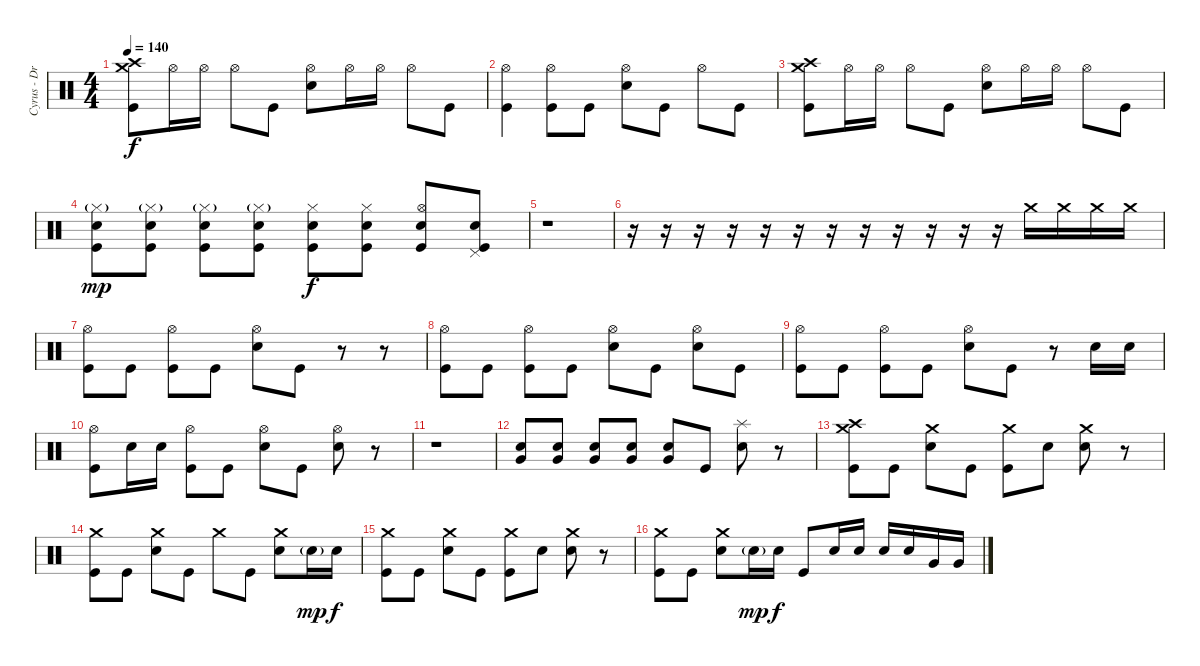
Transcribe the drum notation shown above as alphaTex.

\track ("Cyrus - Drums" "Cyrus - Dr") {instrument percussion}
\staff {score}
\articulation defaults
\ts (4 4)
\tempo 140
\clef neutral
\ks c
("Crash high (hit)" "Crash medium (hit)" "Kick (hit)").8{dy f} "Hi-Hat (open)".16 "Hi-Hat (open)".16 "Hi-Hat (open)".8 "Kick (hit)".8 ("Hi-Hat (open)" "Electric Snare (hit)").8 "Hi-Hat (open)".16 "Hi-Hat (open)".16 "Hi-Hat (open)".8 "Kick (hit)".8 |
("Hi-Hat (open)" "Kick (hit)").4 ("Hi-Hat (open)" "Kick (hit)").8 "Kick (hit)".8 ("Hi-Hat (open)" "Electric Snare (hit)").8 "Kick (hit)".8 "Hi-Hat (open)".8 "Kick (hit)".8 |
("Crash medium (hit)" "Crash high (hit)" "Kick (hit)").8 "Hi-Hat (open)".16 "Hi-Hat (open)".16 "Hi-Hat (open)".8 "Kick (hit)".8 ("Hi-Hat (open)" "Electric Snare (hit)").8 "Hi-Hat (open)".16 "Hi-Hat (open)".16 "Hi-Hat (open)".8 "Kick (hit)".8 |
("Hi-Hat (closed)"{g} "Electric Snare (hit)" "Kick (hit)").8{dy mp} ("Hi-Hat (closed)"{g} "Electric Snare (hit)" "Kick (hit)").8 ("Hi-Hat (closed)"{g} "Electric Snare (hit)" "Kick (hit)").8 ("Hi-Hat (closed)"{g} "Electric Snare (hit)" "Kick (hit)").8 ("Hi-Hat (closed)" "Electric Snare (hit)" "Kick (hit)").8{dy f} ("Hi-Hat (closed)" "Electric Snare (hit)" "Kick (hit)").8 ("Hi-Hat (open)" "Electric Snare (hit)" "Kick (hit)").8 ("Pedal Hi-Hat (hit)" "Electric Snare (hit)" "Kick (hit)").8 |
r.1 |
r.16 r.16 r.16 r.16 r.16 r.16 r.16 r.16 r.16 r.16 r.16 r.16 "Crash medium (hit)".16{volume 4} "Crash medium (hit)".16{volume 7} "Crash medium (hit)".16{volume 10} "Crash medium (hit)".16{volume 14 balance 10} |
("Hi-Hat (open)" "Kick (hit)").8{volume 13 balance 10} "Kick (hit)".8 ("Hi-Hat (open)" "Kick (hit)").8 "Kick (hit)".8 ("Hi-Hat (open)" "Electric Snare (hit)").8 "Kick (hit)".8 r.8 r.8 |
("Hi-Hat (open)" "Kick (hit)").8 "Kick (hit)".8 ("Hi-Hat (open)" "Kick (hit)").8 "Kick (hit)".8 ("Hi-Hat (open)" "Electric Snare (hit)").8 "Kick (hit)".8 ("Hi-Hat (open)" "Electric Snare (hit)").8 "Kick (hit)".8 |
("Hi-Hat (open)" "Kick (hit)").8 "Kick (hit)".8 ("Hi-Hat (open)" "Kick (hit)").8 "Kick (hit)".8 ("Hi-Hat (open)" "Electric Snare (hit)").8 "Kick (hit)".8 r.8 "Electric Snare (hit)".16 "Electric Snare (hit)".16 |
("Hi-Hat (open)" "Kick (hit)").8 "Electric Snare (hit)".16 "Electric Snare (hit)".16 ("Hi-Hat (open)" "Kick (hit)").8 "Kick (hit)".8 ("Hi-Hat (open)" "Electric Snare (hit)").8 "Kick (hit)".8 ("Hi-Hat (open)" "Electric Snare (hit)").8 r.8 |
r.1 |
("Electric Snare (hit)" "Very Low Tom (hit)").8{balance 8} ("Electric Snare (hit)" "Very Low Tom (hit)").8 ("Electric Snare (hit)" "Very Low Tom (hit)").8 ("Electric Snare (hit)" "Very Low Tom (hit)").8 ("Electric Snare (hit)" "Very Low Tom (hit)").8 "Kick (hit)".8 ("Splash (hit)" "Electric Snare (hit)").8 r.8 |
("Crash high (hit)" "Crash medium (hit)" "Kick (hit)").8 "Kick (hit)".8 ("Crash medium (hit)" "Electric Snare (hit)").8 "Kick (hit)".8 ("Crash medium (hit)" "Kick (hit)").8 "Electric Snare (hit)".8 ("Crash medium (hit)" "Electric Snare (hit)").8 r.8 |
("Crash medium (hit)" "Kick (hit)").8 "Kick (hit)".8 ("Crash medium (hit)" "Electric Snare (hit)").8 "Kick (hit)".8 "Crash medium (hit)".8 "Kick (hit)".8 ("Crash medium (hit)" "Electric Snare (hit)").8 "Electric Snare (hit)"{g}.16{dy mp} "Electric Snare (hit)".16{dy f} |
("Crash medium (hit)" "Kick (hit)").8 "Kick (hit)".8 ("Crash medium (hit)" "Electric Snare (hit)").8 "Kick (hit)".8 ("Crash medium (hit)" "Kick (hit)").8 "Electric Snare (hit)".8 ("Crash medium (hit)" "Electric Snare (hit)").8 r.8 |
("Crash medium (hit)" "Kick (hit)").8 "Kick (hit)".8 ("Crash medium (hit)" "Electric Snare (hit)").8 "Electric Snare (hit)"{g}.16{dy mp} "Electric Snare (hit)".16{dy f} "Kick (hit)".8 "Electric Snare (hit)".16 "Electric Snare (hit)".16 "Electric Snare (hit)".16 "Electric Snare (hit)".16 "Very Low Tom (hit)".16 "Very Low Tom (hit)".16
